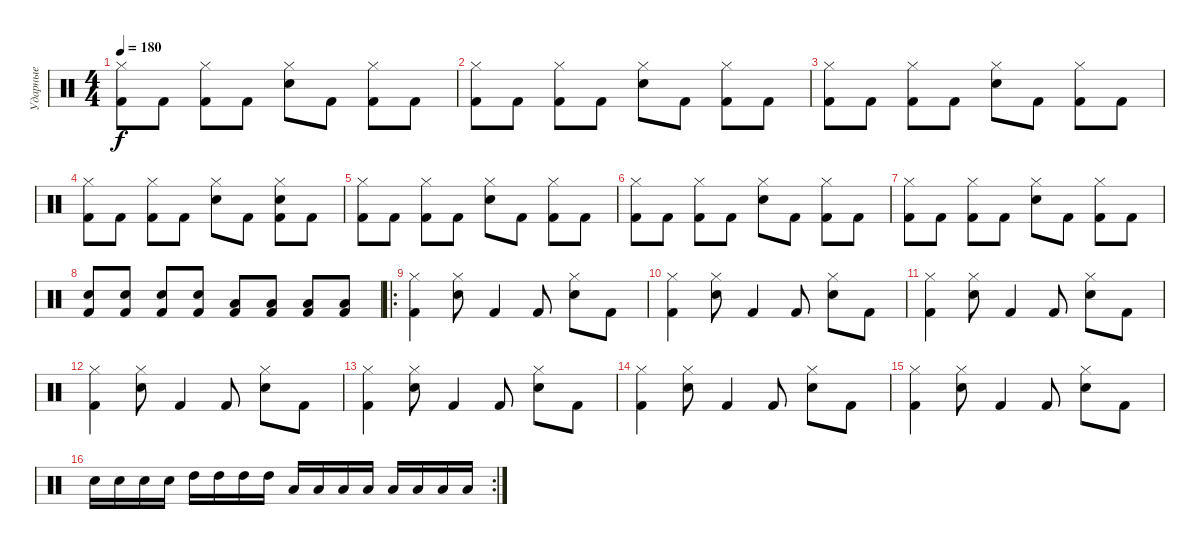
\track ("Ударные" "Ударные") {instrument percussion}
\staff {score}
\articulation defaults
\ts (4 4)
\tempo 180
\clef neutral
\ks c
("Hi-Hat (closed)" "Kick (hit) 2").8{dy f} "Kick (hit) 2".8 ("Hi-Hat (closed)" "Kick (hit) 2").8 "Kick (hit) 2".8 ("Hi-Hat (closed)" "Snare (hit) 2").8 "Kick (hit) 2".8 ("Hi-Hat (closed)" "Kick (hit) 2").8 "Kick (hit) 2".8 |
("Hi-Hat (closed)" "Kick (hit) 2").8 "Kick (hit) 2".8 ("Hi-Hat (closed)" "Kick (hit) 2").8 "Kick (hit) 2".8 ("Hi-Hat (closed)" "Snare (hit) 2").8 "Kick (hit) 2".8 ("Hi-Hat (closed)" "Kick (hit) 2").8 "Kick (hit) 2".8 |
("Hi-Hat (closed)" "Kick (hit) 2").8 "Kick (hit) 2".8 ("Hi-Hat (closed)" "Kick (hit) 2").8 "Kick (hit) 2".8 ("Hi-Hat (closed)" "Snare (hit) 2").8 "Kick (hit) 2".8 ("Hi-Hat (closed)" "Kick (hit) 2").8 "Kick (hit) 2".8 |
("Hi-Hat (closed)" "Kick (hit) 2").8 "Kick (hit) 2".8 ("Hi-Hat (closed)" "Kick (hit) 2").8 "Kick (hit) 2".8 ("Hi-Hat (closed)" "Snare (hit) 2").8 "Kick (hit) 2".8 ("Hi-Hat (closed)" "Snare (hit) 2" "Kick (hit) 2").8 "Kick (hit) 2".8 |
("Hi-Hat (closed)" "Kick (hit) 2").8 "Kick (hit) 2".8 ("Hi-Hat (closed)" "Kick (hit) 2").8 "Kick (hit) 2".8 ("Hi-Hat (closed)" "Snare (hit) 2").8 "Kick (hit) 2".8 ("Hi-Hat (closed)" "Kick (hit) 2").8 "Kick (hit) 2".8 |
("Hi-Hat (closed)" "Kick (hit) 2").8 "Kick (hit) 2".8 ("Hi-Hat (closed)" "Kick (hit) 2").8 "Kick (hit) 2".8 ("Hi-Hat (closed)" "Snare (hit) 2").8 "Kick (hit) 2".8 ("Hi-Hat (closed)" "Kick (hit) 2").8 "Kick (hit) 2".8 |
("Hi-Hat (closed)" "Kick (hit) 2").8 "Kick (hit) 2".8 ("Hi-Hat (closed)" "Kick (hit) 2").8 "Kick (hit) 2".8 ("Hi-Hat (closed)" "Snare (hit) 2").8 "Kick (hit) 2".8 ("Hi-Hat (closed)" "Kick (hit) 2").8 "Kick (hit) 2".8 |
("Snare (hit) 2" "Kick (hit) 2").8 ("Snare (hit) 2" "Kick (hit) 2").8 ("Snare (hit) 2" "Kick (hit) 2").8 ("Snare (hit) 2" "Kick (hit) 2").8 ("Low Tom (hit)" "Kick (hit) 2").8 ("Low Tom (hit)" "Kick (hit) 2").8 ("Low Tom (hit)" "Kick (hit) 2").8 ("Low Tom (hit)" "Kick (hit) 2").8 |
\ro
("Hi-Hat (closed)" "Kick (hit) 2").4 ("Hi-Hat (closed)" "Snare (hit) 2").8 "Kick (hit) 2".4 "Kick (hit) 2".8 ("Hi-Hat (closed)" "Snare (hit) 2").8 "Kick (hit) 2".8 |
("Hi-Hat (closed)" "Kick (hit) 2").4 ("Hi-Hat (closed)" "Snare (hit) 2").8 "Kick (hit) 2".4 "Kick (hit) 2".8 ("Hi-Hat (closed)" "Snare (hit) 2").8 "Kick (hit) 2".8 |
("Hi-Hat (closed)" "Kick (hit) 2").4 ("Hi-Hat (closed)" "Snare (hit) 2").8 "Kick (hit) 2".4 "Kick (hit) 2".8 ("Hi-Hat (closed)" "Snare (hit) 2").8 "Kick (hit) 2".8 |
("Hi-Hat (closed)" "Kick (hit) 2").4 ("Hi-Hat (closed)" "Snare (hit) 2").8 "Kick (hit) 2".4 "Kick (hit) 2".8 ("Hi-Hat (closed)" "Snare (hit) 2").8 "Kick (hit) 2".8 |
("Hi-Hat (closed)" "Kick (hit) 2").4 ("Hi-Hat (closed)" "Snare (hit) 2").8 "Kick (hit) 2".4 "Kick (hit) 2".8 ("Hi-Hat (closed)" "Snare (hit) 2").8 "Kick (hit) 2".8 |
("Hi-Hat (closed)" "Kick (hit) 2").4 ("Hi-Hat (closed)" "Snare (hit) 2").8 "Kick (hit) 2".4 "Kick (hit) 2".8 ("Hi-Hat (closed)" "Snare (hit) 2").8 "Kick (hit) 2".8 |
("Hi-Hat (closed)" "Kick (hit) 2").4 ("Hi-Hat (closed)" "Snare (hit) 2").8 "Kick (hit) 2".4 "Kick (hit) 2".8 ("Hi-Hat (closed)" "Snare (hit) 2").8 "Kick (hit) 2".8 |
\rc 2 "Snare (hit) 2".16 "Snare (hit) 2".16 "Snare (hit) 2".16 "Snare (hit) 2".16 "High Tom (hit)".16 "High Tom (hit)".16 "High Tom (hit)".16 "High Tom (hit)".16 "Low Tom (hit)".16 "Low Tom (hit)".16 "Low Tom (hit)".16 "Low Tom (hit)".16 "Low Floor Tom (hit)".16 "Low Floor Tom (hit)".16 "Low Floor Tom (hit)".16 "Low Floor Tom (hit)".16
